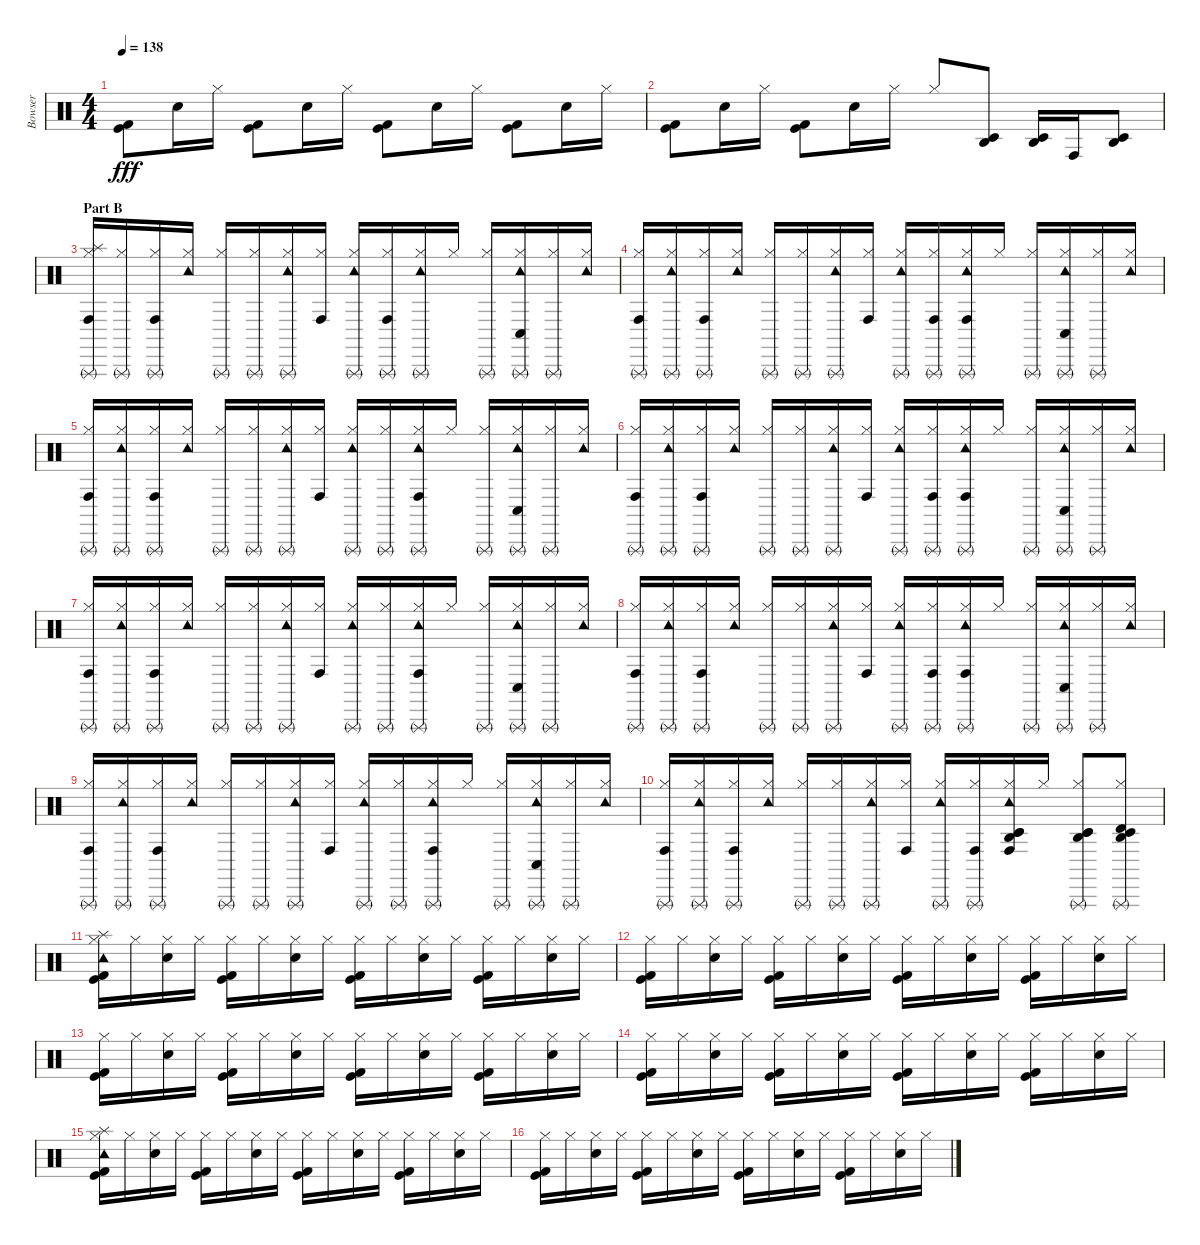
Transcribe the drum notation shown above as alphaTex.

\track ("Bowser" "Bowser") {instrument percussion}
\staff {score}
\articulation defaults
\ts (4 4)
\tempo 138
\clef neutral
\ks c
("Kick (hit)" "Kick (hit) 2").8{dy fff} "Electric Snare (hit)".16 "Hi-Hat (closed)".16 ("Kick (hit)" "Kick (hit) 2").8 "Electric Snare (hit)".16 "Hi-Hat (closed)".16 ("Kick (hit)" "Kick (hit) 2").8 "Electric Snare (hit)".16 "Hi-Hat (closed)".16 ("Kick (hit)" "Kick (hit) 2").8 "Electric Snare (hit)".16 "Hi-Hat (closed)".16 |
("Kick (hit)" "Kick (hit) 2").8 "Electric Snare (hit)".16 "Hi-Hat (closed)".16 ("Kick (hit)" "Kick (hit) 2").8 "Electric Snare (hit)".16 "Hi-Hat (closed)".16 "Hi-Hat (closed)".8 ("Timbale low (hit)" "Agogo high (hit)").8 ("Timbale low (hit)" "Agogo high (hit)").16 "Conga high (hit)".16 ("Timbale low (hit)" "Agogo high (hit)").8 |
\section ("" "Part B")
("Hi-Hat (closed)" "Splash (hit)" "Conga high (hit)" "Triangle (rnute)").16{volume 10} ("Hi-Hat (closed)" "Triangle (rnute)").16 ("Hi-Hat (closed)" "Conga high (hit)" "Triangle (rnute)").16 ("Hi-Hat (closed)" "Tambourine (hit)").16 ("Hi-Hat (closed)" "Triangle (rnute)").16 ("Hi-Hat (closed)" "Triangle (rnute)").16 ("Hi-Hat (closed)" "Tambourine (hit)" "Triangle (rnute)").16 ("Hi-Hat (closed)" "Conga high (hit)").16 ("Hi-Hat (closed)" "Tambourine (hit)" "Triangle (rnute)").16 ("Hi-Hat (closed)" "Conga high (hit)" "Triangle (rnute)").16 ("Hi-Hat (closed)" "Tambourine (hit)" "Triangle (rnute)").16 "Hi-Hat (closed)".16 ("Hi-Hat (closed)" "Triangle (rnute)").16 ("Hi-Hat (closed)" "Tambourine (hit)" "Conga low (hit)" "Triangle (rnute)").16 ("Hi-Hat (closed)" "Triangle (rnute)").16 ("Hi-Hat (closed)" "Tambourine (hit)").16 |
("Hi-Hat (closed)" "Conga high (hit)" "Triangle (rnute)").16 ("Hi-Hat (closed)" "Tambourine (hit)" "Triangle (rnute)").16 ("Hi-Hat (closed)" "Conga high (hit)" "Triangle (rnute)").16 ("Hi-Hat (closed)" "Tambourine (hit)").16 ("Hi-Hat (closed)" "Triangle (rnute)").16 ("Hi-Hat (closed)" "Triangle (rnute)").16 ("Hi-Hat (closed)" "Tambourine (hit)" "Triangle (rnute)").16 ("Hi-Hat (closed)" "Conga high (hit)").16 ("Hi-Hat (closed)" "Tambourine (hit)" "Triangle (rnute)").16 ("Hi-Hat (closed)" "Conga high (hit)" "Triangle (rnute)").16 ("Hi-Hat (closed)" "Tambourine (hit)" "Conga high (hit)" "Triangle (rnute)").16 "Hi-Hat (closed)".16 ("Hi-Hat (closed)" "Triangle (rnute)").16 ("Hi-Hat (closed)" "Tambourine (hit)" "Conga low (hit)" "Triangle (rnute)").16 ("Hi-Hat (closed)" "Triangle (rnute)").16 ("Hi-Hat (closed)" "Tambourine (hit)").16 |
("Hi-Hat (closed)" "Conga high (hit)" "Triangle (rnute)").16 ("Hi-Hat (closed)" "Tambourine (hit)" "Triangle (rnute)").16 ("Hi-Hat (closed)" "Conga high (hit)" "Triangle (rnute)").16 ("Hi-Hat (closed)" "Tambourine (hit)").16 ("Hi-Hat (closed)" "Triangle (rnute)").16 ("Hi-Hat (closed)" "Triangle (rnute)").16 ("Hi-Hat (closed)" "Tambourine (hit)" "Triangle (rnute)").16 ("Hi-Hat (closed)" "Conga high (hit)").16 ("Hi-Hat (closed)" "Tambourine (hit)" "Triangle (rnute)").16 ("Hi-Hat (closed)" "Triangle (rnute)").16 ("Hi-Hat (closed)" "Tambourine (hit)" "Conga high (hit)" "Triangle (rnute)").16 "Hi-Hat (closed)".16 ("Hi-Hat (closed)" "Triangle (rnute)").16 ("Hi-Hat (closed)" "Tambourine (hit)" "Conga low (hit)" "Triangle (rnute)").16 ("Hi-Hat (closed)" "Triangle (rnute)").16 ("Hi-Hat (closed)" "Tambourine (hit)").16 |
("Hi-Hat (closed)" "Conga high (hit)" "Triangle (rnute)").16 ("Hi-Hat (closed)" "Tambourine (hit)" "Triangle (rnute)").16 ("Hi-Hat (closed)" "Conga high (hit)" "Triangle (rnute)").16 ("Hi-Hat (closed)" "Tambourine (hit)").16 ("Hi-Hat (closed)" "Triangle (rnute)").16 ("Hi-Hat (closed)" "Triangle (rnute)").16 ("Hi-Hat (closed)" "Tambourine (hit)" "Triangle (rnute)").16 ("Hi-Hat (closed)" "Conga high (hit)").16 ("Hi-Hat (closed)" "Tambourine (hit)" "Triangle (rnute)").16 ("Hi-Hat (closed)" "Conga high (hit)" "Triangle (rnute)").16 ("Hi-Hat (closed)" "Tambourine (hit)" "Conga high (hit)" "Triangle (rnute)").16 "Hi-Hat (closed)".16 ("Hi-Hat (closed)" "Triangle (rnute)").16 ("Hi-Hat (closed)" "Tambourine (hit)" "Conga low (hit)" "Triangle (rnute)").16 ("Hi-Hat (closed)" "Triangle (rnute)").16 ("Hi-Hat (closed)" "Tambourine (hit)").16 |
("Hi-Hat (closed)" "Conga high (hit)" "Triangle (rnute)").16 ("Hi-Hat (closed)" "Tambourine (hit)" "Triangle (rnute)").16 ("Hi-Hat (closed)" "Conga high (hit)" "Triangle (rnute)").16 ("Hi-Hat (closed)" "Tambourine (hit)").16 ("Hi-Hat (closed)" "Triangle (rnute)").16 ("Hi-Hat (closed)" "Triangle (rnute)").16 ("Hi-Hat (closed)" "Tambourine (hit)" "Triangle (rnute)").16 ("Hi-Hat (closed)" "Conga high (hit)").16 ("Hi-Hat (closed)" "Tambourine (hit)" "Triangle (rnute)").16 ("Hi-Hat (closed)" "Triangle (rnute)").16 ("Hi-Hat (closed)" "Tambourine (hit)" "Conga high (hit)" "Triangle (rnute)").16 "Hi-Hat (closed)".16 ("Hi-Hat (closed)" "Triangle (rnute)").16 ("Hi-Hat (closed)" "Tambourine (hit)" "Conga low (hit)" "Triangle (rnute)").16 ("Hi-Hat (closed)" "Triangle (rnute)").16 ("Hi-Hat (closed)" "Tambourine (hit)").16 |
("Hi-Hat (closed)" "Conga high (hit)" "Triangle (rnute)").16 ("Hi-Hat (closed)" "Tambourine (hit)" "Triangle (rnute)").16 ("Hi-Hat (closed)" "Conga high (hit)" "Triangle (rnute)").16 ("Hi-Hat (closed)" "Tambourine (hit)").16 ("Hi-Hat (closed)" "Triangle (rnute)").16 ("Hi-Hat (closed)" "Triangle (rnute)").16 ("Hi-Hat (closed)" "Tambourine (hit)" "Triangle (rnute)").16 ("Hi-Hat (closed)" "Conga high (hit)").16 ("Hi-Hat (closed)" "Tambourine (hit)" "Triangle (rnute)").16 ("Hi-Hat (closed)" "Conga high (hit)" "Triangle (rnute)").16 ("Hi-Hat (closed)" "Tambourine (hit)" "Conga high (hit)" "Triangle (rnute)").16 "Hi-Hat (closed)".16 ("Hi-Hat (closed)" "Triangle (rnute)").16 ("Hi-Hat (closed)" "Tambourine (hit)" "Conga low (hit)" "Triangle (rnute)").16 ("Hi-Hat (closed)" "Triangle (rnute)").16 ("Hi-Hat (closed)" "Tambourine (hit)").16 |
("Hi-Hat (closed)" "Conga high (hit)" "Triangle (rnute)").16 ("Hi-Hat (closed)" "Tambourine (hit)" "Triangle (rnute)").16 ("Hi-Hat (closed)" "Conga high (hit)" "Triangle (rnute)").16 ("Hi-Hat (closed)" "Tambourine (hit)").16 ("Hi-Hat (closed)" "Triangle (rnute)").16 ("Hi-Hat (closed)" "Triangle (rnute)").16 ("Hi-Hat (closed)" "Tambourine (hit)" "Triangle (rnute)").16 ("Hi-Hat (closed)" "Conga high (hit)").16 ("Hi-Hat (closed)" "Tambourine (hit)" "Triangle (rnute)").16 ("Hi-Hat (closed)" "Triangle (rnute)").16 ("Hi-Hat (closed)" "Tambourine (hit)" "Conga high (hit)" "Triangle (rnute)").16 "Hi-Hat (closed)".16 ("Hi-Hat (closed)" "Triangle (rnute)").16 ("Hi-Hat (closed)" "Tambourine (hit)" "Conga low (hit)" "Triangle (rnute)").16 ("Hi-Hat (closed)" "Triangle (rnute)").16 ("Hi-Hat (closed)" "Tambourine (hit)").16 |
("Hi-Hat (closed)" "Conga high (hit)" "Triangle (rnute)").16 ("Hi-Hat (closed)" "Tambourine (hit)" "Triangle (rnute)").16 ("Hi-Hat (closed)" "Conga high (hit)" "Triangle (rnute)").16 ("Hi-Hat (closed)" "Tambourine (hit)").16 ("Hi-Hat (closed)" "Triangle (rnute)").16 ("Hi-Hat (closed)" "Triangle (rnute)").16 ("Hi-Hat (closed)" "Tambourine (hit)" "Triangle (rnute)").16 ("Hi-Hat (closed)" "Conga high (hit)").16 ("Hi-Hat (closed)" "Tambourine (hit)" "Triangle (rnute)").16 ("Hi-Hat (closed)" "Conga high (hit)" "Triangle (rnute)").16 ("Hi-Hat (closed)" "Tambourine (hit)" "Conga high (hit)" "Timbale low (hit)" "Timbale low (hit)" "Agogo high (hit)").16 "Hi-Hat (closed)".16 ("Hi-Hat (closed)" "Timbale low (hit)" "Timbale low (hit)" "Agogo high (hit)" "Triangle (rnute)").8 ("Hi-Hat (closed)" "Timbale high (hit)" "Timbale low (hit)" "Agogo high (hit)" "Triangle (rnute)").8 |
("Kick (hit)" "Kick (hit) 2" "Hi-Hat (closed)" "Tambourine (hit)" "Splash (hit)").16{volume 12} "Hi-Hat (closed)".16 ("Electric Snare (hit)" "Hi-Hat (closed)").16 "Hi-Hat (closed)".16 ("Kick (hit)" "Kick (hit) 2" "Hi-Hat (closed)").16 "Hi-Hat (closed)".16 ("Electric Snare (hit)" "Hi-Hat (closed)").16 "Hi-Hat (closed)".16 ("Kick (hit)" "Kick (hit) 2" "Hi-Hat (closed)").16 "Hi-Hat (closed)".16 ("Electric Snare (hit)" "Hi-Hat (closed)").16 "Hi-Hat (closed)".16 ("Kick (hit)" "Kick (hit) 2" "Hi-Hat (closed)").16 "Hi-Hat (closed)".16 ("Electric Snare (hit)" "Hi-Hat (closed)").16 "Hi-Hat (closed)".16 |
("Kick (hit)" "Kick (hit) 2" "Hi-Hat (closed)").16 "Hi-Hat (closed)".16 ("Electric Snare (hit)" "Hi-Hat (closed)").16 "Hi-Hat (closed)".16 ("Kick (hit)" "Kick (hit) 2" "Hi-Hat (closed)").16 "Hi-Hat (closed)".16 ("Electric Snare (hit)" "Hi-Hat (closed)").16 "Hi-Hat (closed)".16 ("Kick (hit)" "Kick (hit) 2" "Hi-Hat (closed)").16 "Hi-Hat (closed)".16 ("Electric Snare (hit)" "Hi-Hat (closed)").16 "Hi-Hat (closed)".16 ("Kick (hit)" "Kick (hit) 2" "Hi-Hat (closed)").16 "Hi-Hat (closed)".16 ("Electric Snare (hit)" "Hi-Hat (closed)").16 "Hi-Hat (closed)".16 |
("Kick (hit)" "Kick (hit) 2" "Hi-Hat (closed)").16 "Hi-Hat (closed)".16 ("Electric Snare (hit)" "Hi-Hat (closed)").16 "Hi-Hat (closed)".16 ("Kick (hit)" "Kick (hit) 2" "Hi-Hat (closed)").16 "Hi-Hat (closed)".16 ("Electric Snare (hit)" "Hi-Hat (closed)").16 "Hi-Hat (closed)".16 ("Kick (hit)" "Kick (hit) 2" "Hi-Hat (closed)").16 "Hi-Hat (closed)".16 ("Electric Snare (hit)" "Hi-Hat (closed)").16 "Hi-Hat (closed)".16 ("Kick (hit)" "Kick (hit) 2" "Hi-Hat (closed)").16 "Hi-Hat (closed)".16 ("Electric Snare (hit)" "Hi-Hat (closed)").16 "Hi-Hat (closed)".16 |
("Kick (hit)" "Kick (hit) 2" "Hi-Hat (closed)").16 "Hi-Hat (closed)".16 ("Electric Snare (hit)" "Hi-Hat (closed)").16 "Hi-Hat (closed)".16 ("Kick (hit)" "Kick (hit) 2" "Hi-Hat (closed)").16 "Hi-Hat (closed)".16 ("Electric Snare (hit)" "Hi-Hat (closed)").16 "Hi-Hat (closed)".16 ("Kick (hit)" "Kick (hit) 2" "Hi-Hat (closed)").16 "Hi-Hat (closed)".16 ("Electric Snare (hit)" "Hi-Hat (closed)").16 "Hi-Hat (closed)".16 ("Kick (hit)" "Kick (hit) 2" "Hi-Hat (closed)").16 "Hi-Hat (closed)".16 ("Electric Snare (hit)" "Hi-Hat (closed)").16 "Hi-Hat (closed)".16 |
("Kick (hit)" "Kick (hit) 2" "Hi-Hat (closed)" "Tambourine (hit)" "Splash (hit)").16 "Hi-Hat (closed)".16 ("Electric Snare (hit)" "Hi-Hat (closed)").16 "Hi-Hat (closed)".16 ("Kick (hit)" "Kick (hit) 2" "Hi-Hat (closed)").16 "Hi-Hat (closed)".16 ("Electric Snare (hit)" "Hi-Hat (closed)").16 "Hi-Hat (closed)".16 ("Kick (hit)" "Kick (hit) 2" "Hi-Hat (closed)").16 "Hi-Hat (closed)".16 ("Electric Snare (hit)" "Hi-Hat (closed)").16 "Hi-Hat (closed)".16 ("Kick (hit)" "Kick (hit) 2" "Hi-Hat (closed)").16 "Hi-Hat (closed)".16 ("Electric Snare (hit)" "Hi-Hat (closed)").16 "Hi-Hat (closed)".16 |
("Kick (hit)" "Kick (hit) 2" "Hi-Hat (closed)").16 "Hi-Hat (closed)".16 ("Electric Snare (hit)" "Hi-Hat (closed)").16 "Hi-Hat (closed)".16 ("Kick (hit)" "Kick (hit) 2" "Hi-Hat (closed)").16 "Hi-Hat (closed)".16 ("Electric Snare (hit)" "Hi-Hat (closed)").16 "Hi-Hat (closed)".16 ("Kick (hit)" "Kick (hit) 2" "Hi-Hat (closed)").16 "Hi-Hat (closed)".16 ("Electric Snare (hit)" "Hi-Hat (closed)").16 "Hi-Hat (closed)".16 ("Kick (hit)" "Kick (hit) 2" "Hi-Hat (closed)").16 "Hi-Hat (closed)".16 ("Electric Snare (hit)" "Hi-Hat (closed)").16 "Hi-Hat (closed)".16
